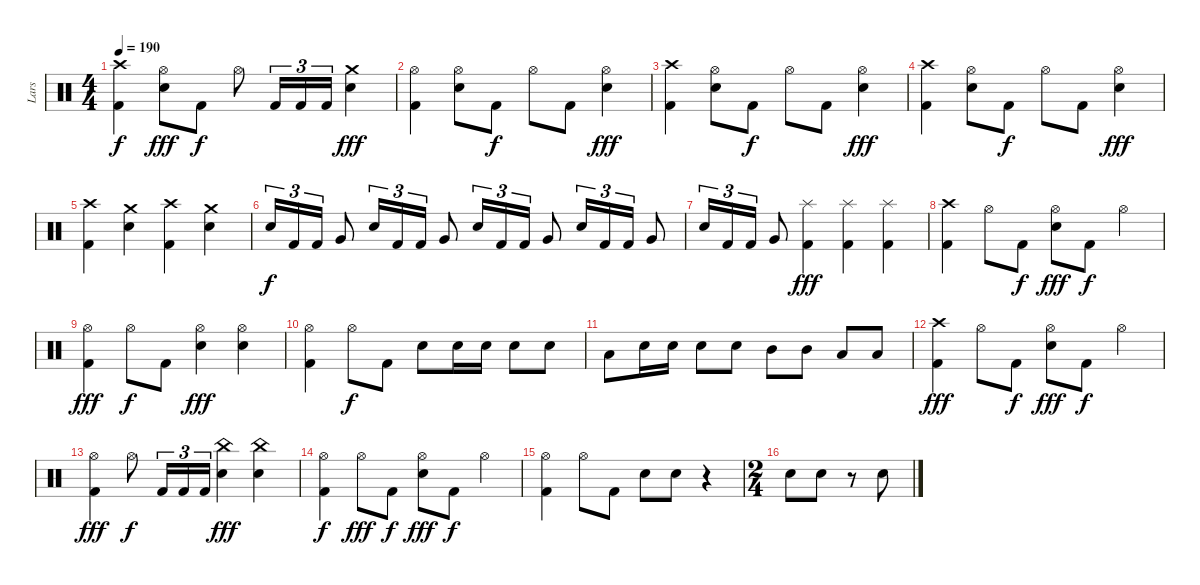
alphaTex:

\track ("Lars" "Lars") {instrument percussion}
\staff {score}
\articulation defaults
\ts (4 4)
\tempo 190
\clef neutral
\ks c
("Crash high (hit)" "Kick (hit) 2").4{dy f} ("Hi-Hat (open)" "Snare (hit) 2").8{dy fff} "Kick (hit) 2".8{dy f} "Hi-Hat (open)".8 "Kick (hit) 2".16{tu (3 2)} "Kick (hit) 2".16{tu (3 2)} "Kick (hit) 2".16{tu (3 2)} ("Crash medium (hit)" "Snare (hit) 2").4{dy fff} |
("Hi-Hat (open)" "Kick (hit) 2").4 ("Hi-Hat (open)" "Snare (hit) 2").8 "Kick (hit) 2".8{dy f} "Hi-Hat (open)".8 "Kick (hit) 2".8 ("Hi-Hat (open)" "Snare (hit) 2").4{dy fff} |
("Crash high (hit)" "Kick (hit) 2").4 ("Hi-Hat (open)" "Snare (hit) 2").8 "Kick (hit) 2".8{dy f} "Hi-Hat (open)".8 "Kick (hit) 2".8 ("Hi-Hat (open)" "Snare (hit) 2").4{dy fff} |
("Crash high (hit)" "Kick (hit) 2").4 ("Hi-Hat (open)" "Snare (hit) 2").8 "Kick (hit) 2".8{dy f} "Hi-Hat (open)".8 "Kick (hit) 2".8 ("Hi-Hat (open)" "Snare (hit) 2").4{dy fff} |
("Crash high (hit)" "Kick (hit) 2").4 ("Crash medium (hit)" "Snare (hit) 2").4 ("Crash high (hit)" "Kick (hit) 2").4 ("Crash medium (hit)" "Snare (hit) 2").4 |
"Snare (hit) 2".16{tu (3 2) dy f} "Kick (hit) 2".16{tu (3 2)} "Kick (hit) 2".16{tu (3 2)} "Very Low Tom (hit)".8 "Snare (hit) 2".16{tu (3 2)} "Kick (hit) 2".16{tu (3 2)} "Kick (hit) 2".16{tu (3 2)} "Very Low Tom (hit)".8 "Snare (hit) 2".16{tu (3 2)} "Kick (hit) 2".16{tu (3 2)} "Kick (hit) 2".16{tu (3 2)} "Very Low Tom (hit)".8 "Snare (hit) 2".16{tu (3 2)} "Kick (hit) 2".16{tu (3 2)} "Kick (hit) 2".16{tu (3 2)} "Very Low Tom (hit)".8 |
"Snare (hit) 2".16{tu (3 2)} "Kick (hit) 2".16{tu (3 2)} "Kick (hit) 2".16{tu (3 2)} "Very Low Tom (hit)".8 ("Splash (hit)" "Kick (hit) 2").4{dy fff} ("Splash (hit)" "Kick (hit) 2").4 ("Splash (hit)" "Kick (hit) 2").4 |
("Crash high (hit)" "Kick (hit) 2").4 "Hi-Hat (open)".8 "Kick (hit) 2".8{dy f} ("Hi-Hat (open)" "Snare (hit) 2").8{dy fff} "Kick (hit) 2".8{dy f} "Hi-Hat (open)".4 |
("Hi-Hat (open)" "Kick (hit) 2").4{dy fff} "Hi-Hat (open)".8{dy f} "Kick (hit) 2".8 ("Hi-Hat (open)" "Snare (hit) 2").4{dy fff} ("Hi-Hat (open)" "Snare (hit) 2").4 |
("Hi-Hat (open)" "Kick (hit) 2").4 "Hi-Hat (open)".8{dy f} "Kick (hit) 2".8 "Snare (hit) 2".8 "Snare (hit) 2".16 "Snare (hit) 2".16 "Snare (hit) 2".8 "Snare (hit) 2".8 |
"Low Tom (hit)".8 "Snare (hit) 2".16 "Snare (hit) 2".16 "Snare (hit) 2".8 "Snare (hit) 2".8 "Mid Tom (hit)".8 "Mid Tom (hit)".8 "Low Tom (hit)".8 "Low Tom (hit)".8 |
("Crash high (hit)" "Kick (hit) 2").4{dy fff} "Hi-Hat (open)".8 "Kick (hit) 2".8{dy f} ("Hi-Hat (open)" "Snare (hit) 2").8{dy fff} "Kick (hit) 2".8{dy f} "Hi-Hat (open)".4 |
("Hi-Hat (open)" "Kick (hit) 2").4{dy fff} "Hi-Hat (open)".8{dy f} "Kick (hit) 2".16{tu (3 2)} "Kick (hit) 2".16{tu (3 2)} "Kick (hit) 2".16{tu (3 2)} ("China (hit)" "Snare (hit) 2").4{dy fff} ("China (hit)" "Snare (hit) 2").4 |
("Hi-Hat (open)" "Kick (hit) 2").4{dy f} "Hi-Hat (open)".8{dy fff} "Kick (hit) 2".8{dy f} ("Hi-Hat (open)" "Snare (hit) 2").8{dy fff} "Kick (hit) 2".8{dy f} "Hi-Hat (open)".4 |
("Hi-Hat (open)" "Kick (hit) 2").4 "Hi-Hat (open)".8 "Kick (hit) 2".8 "Snare (hit) 2".8 "Snare (hit) 2".8 r.4 |
\ts (2 4)
"Snare (hit) 2".8 "Snare (hit) 2".8 r.8 "Snare (hit) 2".8
